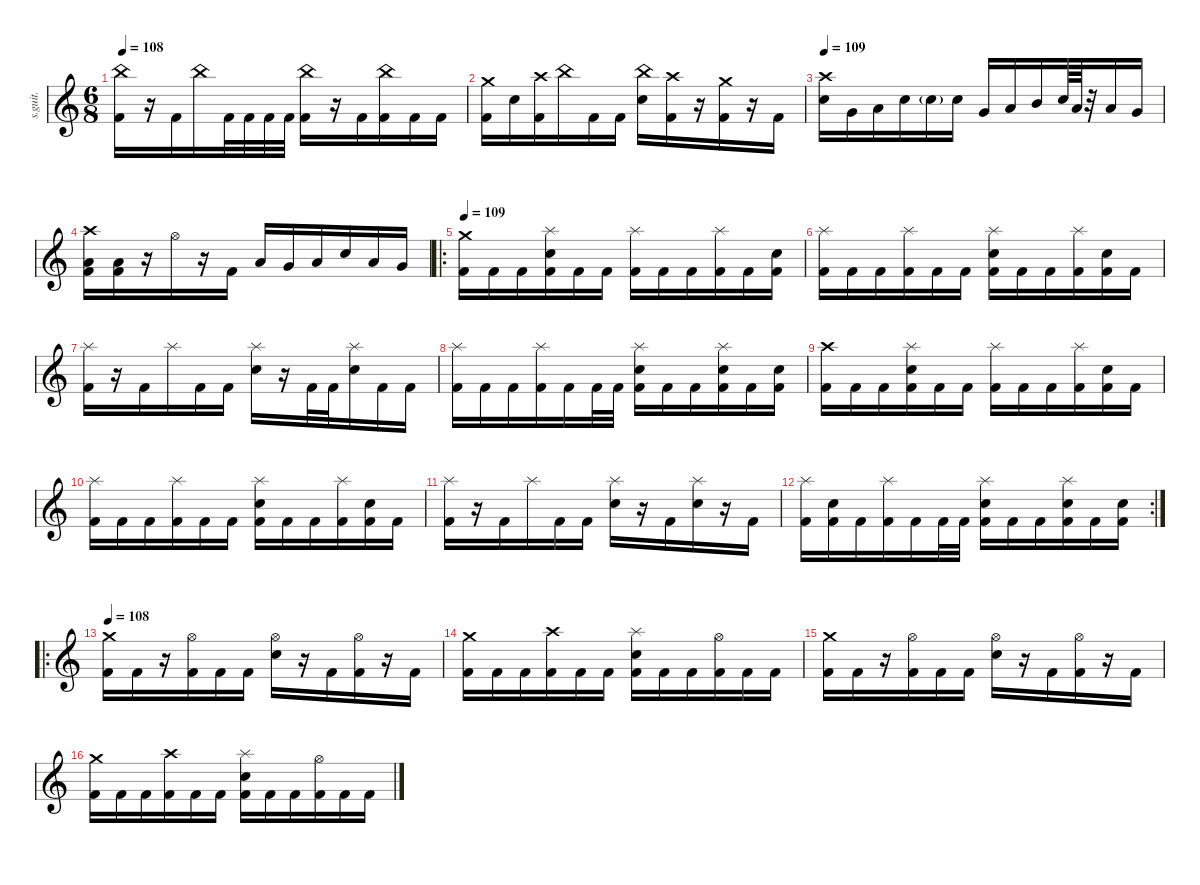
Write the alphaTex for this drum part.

\defaultSystemsLayout 4
\hideDynamics
\bracketExtendMode nobrackets
\track ("Drumkit" "s.guit.") {instrument percussion}
\staff {score}
\articulation defaults
\ts (6 8)
\tempo 108
\clef g2
\ks c
("China (hit)" "Kick (hit) 2").16{lyrics (0 "") lyrics (1 "") lyrics (2 "") lyrics (3 "") lyrics (4 "") dy f} r.16 "Kick (hit) 2".16{lyrics (0 "") lyrics (1 "") lyrics (2 "") lyrics (3 "") lyrics (4 "")} "China (hit)".16{lyrics (0 "") lyrics (1 "") lyrics (2 "") lyrics (3 "") lyrics (4 "")} "Kick (hit) 2".32{lyrics (0 "") lyrics (1 "") lyrics (2 "") lyrics (3 "") lyrics (4 "")} "Kick (hit) 2".32{lyrics (0 "") lyrics (1 "") lyrics (2 "") lyrics (3 "") lyrics (4 "")} "Kick (hit) 2".32{lyrics (0 "") lyrics (1 "") lyrics (2 "") lyrics (3 "") lyrics (4 "")} "Kick (hit) 2".32{lyrics (0 "") lyrics (1 "") lyrics (2 "") lyrics (3 "") lyrics (4 "")} ("China (hit)" "Kick (hit) 2").16{lyrics (0 "") lyrics (1 "") lyrics (2 "") lyrics (3 "") lyrics (4 "")} r.16 "Kick (hit) 2".16{lyrics (0 "") lyrics (1 "") lyrics (2 "") lyrics (3 "") lyrics (4 "")} ("China (hit)" "Kick (hit) 2").16{lyrics (0 "") lyrics (1 "") lyrics (2 "") lyrics (3 "") lyrics (4 "")} "Kick (hit) 2".16{lyrics (0 "") lyrics (1 "") lyrics (2 "") lyrics (3 "") lyrics (4 "")} "Kick (hit) 2".16{lyrics (0 "") lyrics (1 "") lyrics (2 "") lyrics (3 "") lyrics (4 "")} |
("Crash medium (hit)" "Kick (hit) 2").16{lyrics (0 "") lyrics (1 "") lyrics (2 "") lyrics (3 "") lyrics (4 "")} "Electric Snare (hit)".16{lyrics (0 "") lyrics (1 "") lyrics (2 "") lyrics (3 "") lyrics (4 "")} ("Crash high (hit)" "Kick (hit) 2").16{lyrics (0 "") lyrics (1 "") lyrics (2 "") lyrics (3 "") lyrics (4 "")} "China (hit)".16{lyrics (0 "") lyrics (1 "") lyrics (2 "") lyrics (3 "") lyrics (4 "")} "Kick (hit) 2".16{lyrics (0 "") lyrics (1 "") lyrics (2 "") lyrics (3 "") lyrics (4 "")} "Kick (hit) 2".16{lyrics (0 "") lyrics (1 "") lyrics (2 "") lyrics (3 "") lyrics (4 "")} ("China (hit)" "Electric Snare (hit)").16{lyrics (0 "") lyrics (1 "") lyrics (2 "") lyrics (3 "") lyrics (4 "")} ("Crash high (hit)" "Kick (hit) 2").16{lyrics (0 "") lyrics (1 "") lyrics (2 "") lyrics (3 "") lyrics (4 "")} r.16 ("Crash medium (hit)" "Kick (hit) 2").16{lyrics (0 "") lyrics (1 "") lyrics (2 "") lyrics (3 "") lyrics (4 "")} r.16 "Kick (hit) 2".16{lyrics (0 "") lyrics (1 "") lyrics (2 "") lyrics (3 "") lyrics (4 "")} |
\tempo 109
("Crash high (hit)" "Electric Snare (hit)").16{lyrics (0 "") lyrics (1 "") lyrics (2 "") lyrics (3 "") lyrics (4 "")} "Very Low Tom (hit)".16{lyrics (0 "") lyrics (1 "") lyrics (2 "") lyrics (3 "") lyrics (4 "")} "Low Tom (hit)".16{lyrics (0 "") lyrics (1 "") lyrics (2 "") lyrics (3 "") lyrics (4 "")} "Electric Snare (hit)".16{lyrics (0 "") lyrics (1 "") lyrics (2 "") lyrics (3 "") lyrics (4 "")} "Electric Snare (hit)"{g}.16{lyrics (0 "") lyrics (1 "") lyrics (2 "") lyrics (3 "") lyrics (4 "") dy mp} "Electric Snare (hit)".16{lyrics (0 "") lyrics (1 "") lyrics (2 "") lyrics (3 "") lyrics (4 "") dy f} "Very Low Tom (hit)".16{lyrics (0 "") lyrics (1 "") lyrics (2 "") lyrics (3 "") lyrics (4 "")} "Low Tom (hit)".16{lyrics (0 "") lyrics (1 "") lyrics (2 "") lyrics (3 "") lyrics (4 "")} "Mid Tom (hit)".16{lyrics (0 "") lyrics (1 "") lyrics (2 "") lyrics (3 "") lyrics (4 "")} "Electric Snare (hit)".64{lyrics (0 "") lyrics (1 "") lyrics (2 "") lyrics (3 "") lyrics (4 "")} "Low Floor Tom (hit)".64{lyrics (0 "") lyrics (1 "") lyrics (2 "") lyrics (3 "") lyrics (4 "")} r.32 "Low Tom (hit)".16{lyrics (0 "") lyrics (1 "") lyrics (2 "") lyrics (3 "") lyrics (4 "")} "Very Low Tom (hit)".16{lyrics (0 "") lyrics (1 "") lyrics (2 "") lyrics (3 "") lyrics (4 "")} |
("Crash high (hit)" "Low Floor Tom (hit)" "Kick (hit) 2").16{lyrics (0 "") lyrics (1 "") lyrics (2 "") lyrics (3 "") lyrics (4 "")} ("Low Floor Tom (hit)" "Kick (hit) 2").16{lyrics (0 "") lyrics (1 "") lyrics (2 "") lyrics (3 "") lyrics (4 "")} r.16 "Hi-Hat (open)".16{lyrics (0 "") lyrics (1 "") lyrics (2 "") lyrics (3 "") lyrics (4 "")} r.16 "Kick (hit) 2".16{lyrics (0 "") lyrics (1 "") lyrics (2 "") lyrics (3 "") lyrics (4 "")} "Low Floor Tom (hit)".16{lyrics (0 "") lyrics (1 "") lyrics (2 "") lyrics (3 "") lyrics (4 "")} "Very Low Tom (hit)".16{lyrics (0 "") lyrics (1 "") lyrics (2 "") lyrics (3 "") lyrics (4 "")} "Low Tom (hit)".16{lyrics (0 "") lyrics (1 "") lyrics (2 "") lyrics (3 "") lyrics (4 "")} "Electric Snare (hit)".16{lyrics (0 "") lyrics (1 "") lyrics (2 "") lyrics (3 "") lyrics (4 "")} "Low Floor Tom (hit)".16{lyrics (0 "") lyrics (1 "") lyrics (2 "") lyrics (3 "") lyrics (4 "")} "Very Low Tom (hit)".16{lyrics (0 "") lyrics (1 "") lyrics (2 "") lyrics (3 "") lyrics (4 "")} |
\ro
\tempo 109
("Crash medium (hit)" "Kick (hit) 2").16{lyrics (0 "") lyrics (1 "") lyrics (2 "") lyrics (3 "") lyrics (4 "")} "Kick (hit) 2".16{lyrics (0 "") lyrics (1 "") lyrics (2 "") lyrics (3 "") lyrics (4 "")} "Kick (hit) 2".16{lyrics (0 "") lyrics (1 "") lyrics (2 "") lyrics (3 "") lyrics (4 "")} ("Splash (hit)" "Electric Snare (hit)" "Kick (hit) 2").16{lyrics (0 "") lyrics (1 "") lyrics (2 "") lyrics (3 "") lyrics (4 "")} "Kick (hit) 2".16{lyrics (0 "") lyrics (1 "") lyrics (2 "") lyrics (3 "") lyrics (4 "")} "Kick (hit) 2".16{lyrics (0 "") lyrics (1 "") lyrics (2 "") lyrics (3 "") lyrics (4 "")} ("Splash (hit)" "Kick (hit) 2").16{lyrics (0 "") lyrics (1 "") lyrics (2 "") lyrics (3 "") lyrics (4 "")} "Kick (hit) 2".16{lyrics (0 "") lyrics (1 "") lyrics (2 "") lyrics (3 "") lyrics (4 "")} "Kick (hit) 2".16{lyrics (0 "") lyrics (1 "") lyrics (2 "") lyrics (3 "") lyrics (4 "")} ("Splash (hit)" "Kick (hit) 2").16{lyrics (0 "") lyrics (1 "") lyrics (2 "") lyrics (3 "") lyrics (4 "")} "Kick (hit) 2".16{lyrics (0 "") lyrics (1 "") lyrics (2 "") lyrics (3 "") lyrics (4 "")} ("Electric Snare (hit)" "Kick (hit) 2").16{lyrics (0 "") lyrics (1 "") lyrics (2 "") lyrics (3 "") lyrics (4 "")} |
("Splash (hit)" "Kick (hit) 2").16{lyrics (0 "") lyrics (1 "") lyrics (2 "") lyrics (3 "") lyrics (4 "")} "Kick (hit) 2".16{lyrics (0 "") lyrics (1 "") lyrics (2 "") lyrics (3 "") lyrics (4 "")} "Kick (hit) 2".16{lyrics (0 "") lyrics (1 "") lyrics (2 "") lyrics (3 "") lyrics (4 "")} ("Splash (hit)" "Kick (hit) 2").16{lyrics (0 "") lyrics (1 "") lyrics (2 "") lyrics (3 "") lyrics (4 "")} "Kick (hit) 2".16{lyrics (0 "") lyrics (1 "") lyrics (2 "") lyrics (3 "") lyrics (4 "")} "Kick (hit) 2".16{lyrics (0 "") lyrics (1 "") lyrics (2 "") lyrics (3 "") lyrics (4 "")} ("Splash (hit)" "Electric Snare (hit)" "Kick (hit) 2").16{lyrics (0 "") lyrics (1 "") lyrics (2 "") lyrics (3 "") lyrics (4 "")} "Kick (hit) 2".16{lyrics (0 "") lyrics (1 "") lyrics (2 "") lyrics (3 "") lyrics (4 "")} "Kick (hit) 2".16{lyrics (0 "") lyrics (1 "") lyrics (2 "") lyrics (3 "") lyrics (4 "")} ("Splash (hit)" "Kick (hit) 2").16{lyrics (0 "") lyrics (1 "") lyrics (2 "") lyrics (3 "") lyrics (4 "")} ("Electric Snare (hit)" "Kick (hit) 2").16{lyrics (0 "") lyrics (1 "") lyrics (2 "") lyrics (3 "") lyrics (4 "")} "Kick (hit) 2".16{lyrics (0 "") lyrics (1 "") lyrics (2 "") lyrics (3 "") lyrics (4 "")} |
("Splash (hit)" "Kick (hit) 2").16{lyrics (0 "") lyrics (1 "") lyrics (2 "") lyrics (3 "") lyrics (4 "")} r.16 "Kick (hit) 2".16{lyrics (0 "") lyrics (1 "") lyrics (2 "") lyrics (3 "") lyrics (4 "")} "Splash (hit)".16{lyrics (0 "") lyrics (1 "") lyrics (2 "") lyrics (3 "") lyrics (4 "")} "Kick (hit) 2".16{lyrics (0 "") lyrics (1 "") lyrics (2 "") lyrics (3 "") lyrics (4 "")} "Kick (hit) 2".16{lyrics (0 "") lyrics (1 "") lyrics (2 "") lyrics (3 "") lyrics (4 "")} ("Splash (hit)" "Electric Snare (hit)").16{lyrics (0 "") lyrics (1 "") lyrics (2 "") lyrics (3 "") lyrics (4 "")} r.16 "Kick (hit) 2".32{lyrics (0 "") lyrics (1 "") lyrics (2 "") lyrics (3 "") lyrics (4 "")} "Kick (hit) 2".32{lyrics (0 "") lyrics (1 "") lyrics (2 "") lyrics (3 "") lyrics (4 "")} ("Splash (hit)" "Electric Snare (hit)").16{lyrics (0 "") lyrics (1 "") lyrics (2 "") lyrics (3 "") lyrics (4 "")} "Kick (hit) 2".16{lyrics (0 "") lyrics (1 "") lyrics (2 "") lyrics (3 "") lyrics (4 "")} "Kick (hit) 2".16{lyrics (0 "") lyrics (1 "") lyrics (2 "") lyrics (3 "") lyrics (4 "")} |
("Splash (hit)" "Kick (hit) 2").16{lyrics (0 "") lyrics (1 "") lyrics (2 "") lyrics (3 "") lyrics (4 "")} "Kick (hit) 2".16{lyrics (0 "") lyrics (1 "") lyrics (2 "") lyrics (3 "") lyrics (4 "")} "Kick (hit) 2".16{lyrics (0 "") lyrics (1 "") lyrics (2 "") lyrics (3 "") lyrics (4 "")} ("Splash (hit)" "Kick (hit) 2").16{lyrics (0 "") lyrics (1 "") lyrics (2 "") lyrics (3 "") lyrics (4 "")} "Kick (hit) 2".16{lyrics (0 "") lyrics (1 "") lyrics (2 "") lyrics (3 "") lyrics (4 "")} "Kick (hit) 2".32{lyrics (0 "") lyrics (1 "") lyrics (2 "") lyrics (3 "") lyrics (4 "")} "Kick (hit) 2".32{lyrics (0 "") lyrics (1 "") lyrics (2 "") lyrics (3 "") lyrics (4 "")} ("Splash (hit)" "Electric Snare (hit)" "Kick (hit) 2").16{lyrics (0 "") lyrics (1 "") lyrics (2 "") lyrics (3 "") lyrics (4 "")} "Kick (hit) 2".16{lyrics (0 "") lyrics (1 "") lyrics (2 "") lyrics (3 "") lyrics (4 "")} "Kick (hit) 2".16{lyrics (0 "") lyrics (1 "") lyrics (2 "") lyrics (3 "") lyrics (4 "")} ("Splash (hit)" "Electric Snare (hit)" "Kick (hit) 2").16{lyrics (0 "") lyrics (1 "") lyrics (2 "") lyrics (3 "") lyrics (4 "")} "Kick (hit) 2".16{lyrics (0 "") lyrics (1 "") lyrics (2 "") lyrics (3 "") lyrics (4 "")} ("Electric Snare (hit)" "Kick (hit) 2").16{lyrics (0 "") lyrics (1 "") lyrics (2 "") lyrics (3 "") lyrics (4 "")} |
("Crash high (hit)" "Kick (hit) 2").16{lyrics (0 "") lyrics (1 "") lyrics (2 "") lyrics (3 "") lyrics (4 "")} "Kick (hit) 2".16{lyrics (0 "") lyrics (1 "") lyrics (2 "") lyrics (3 "") lyrics (4 "")} "Kick (hit) 2".16{lyrics (0 "") lyrics (1 "") lyrics (2 "") lyrics (3 "") lyrics (4 "")} ("Splash (hit)" "Electric Snare (hit)" "Kick (hit) 2").16{lyrics (0 "") lyrics (1 "") lyrics (2 "") lyrics (3 "") lyrics (4 "")} "Kick (hit) 2".16{lyrics (0 "") lyrics (1 "") lyrics (2 "") lyrics (3 "") lyrics (4 "")} "Kick (hit) 2".16{lyrics (0 "") lyrics (1 "") lyrics (2 "") lyrics (3 "") lyrics (4 "")} ("Splash (hit)" "Kick (hit) 2").16{lyrics (0 "") lyrics (1 "") lyrics (2 "") lyrics (3 "") lyrics (4 "")} "Kick (hit) 2".16{lyrics (0 "") lyrics (1 "") lyrics (2 "") lyrics (3 "") lyrics (4 "")} "Kick (hit) 2".16{lyrics (0 "") lyrics (1 "") lyrics (2 "") lyrics (3 "") lyrics (4 "")} ("Splash (hit)" "Kick (hit) 2").16{lyrics (0 "") lyrics (1 "") lyrics (2 "") lyrics (3 "") lyrics (4 "")} ("Electric Snare (hit)" "Kick (hit) 2").16{lyrics (0 "") lyrics (1 "") lyrics (2 "") lyrics (3 "") lyrics (4 "")} "Kick (hit) 2".16{lyrics (0 "") lyrics (1 "") lyrics (2 "") lyrics (3 "") lyrics (4 "")} |
("Splash (hit)" "Kick (hit) 2").16{lyrics (0 "") lyrics (1 "") lyrics (2 "") lyrics (3 "") lyrics (4 "")} "Kick (hit) 2".16{lyrics (0 "") lyrics (1 "") lyrics (2 "") lyrics (3 "") lyrics (4 "")} "Kick (hit) 2".16{lyrics (0 "") lyrics (1 "") lyrics (2 "") lyrics (3 "") lyrics (4 "")} ("Splash (hit)" "Kick (hit) 2").16{lyrics (0 "") lyrics (1 "") lyrics (2 "") lyrics (3 "") lyrics (4 "")} "Kick (hit) 2".16{lyrics (0 "") lyrics (1 "") lyrics (2 "") lyrics (3 "") lyrics (4 "")} "Kick (hit) 2".16{lyrics (0 "") lyrics (1 "") lyrics (2 "") lyrics (3 "") lyrics (4 "")} ("Splash (hit)" "Electric Snare (hit)" "Kick (hit) 2").16{lyrics (0 "") lyrics (1 "") lyrics (2 "") lyrics (3 "") lyrics (4 "")} "Kick (hit) 2".16{lyrics (0 "") lyrics (1 "") lyrics (2 "") lyrics (3 "") lyrics (4 "")} "Kick (hit) 2".16{lyrics (0 "") lyrics (1 "") lyrics (2 "") lyrics (3 "") lyrics (4 "")} ("Splash (hit)" "Kick (hit) 2").16{lyrics (0 "") lyrics (1 "") lyrics (2 "") lyrics (3 "") lyrics (4 "")} ("Electric Snare (hit)" "Kick (hit) 2").16{lyrics (0 "") lyrics (1 "") lyrics (2 "") lyrics (3 "") lyrics (4 "")} "Kick (hit) 2".16{lyrics (0 "") lyrics (1 "") lyrics (2 "") lyrics (3 "") lyrics (4 "")} |
("Splash (hit)" "Kick (hit) 2").16{lyrics (0 "") lyrics (1 "") lyrics (2 "") lyrics (3 "") lyrics (4 "")} r.16 "Kick (hit) 2".16{lyrics (0 "") lyrics (1 "") lyrics (2 "") lyrics (3 "") lyrics (4 "")} "Splash (hit)".16{lyrics (0 "") lyrics (1 "") lyrics (2 "") lyrics (3 "") lyrics (4 "")} "Kick (hit) 2".16{lyrics (0 "") lyrics (1 "") lyrics (2 "") lyrics (3 "") lyrics (4 "")} "Kick (hit) 2".16{lyrics (0 "") lyrics (1 "") lyrics (2 "") lyrics (3 "") lyrics (4 "")} ("Splash (hit)" "Electric Snare (hit)").16{lyrics (0 "") lyrics (1 "") lyrics (2 "") lyrics (3 "") lyrics (4 "")} r.16 "Kick (hit) 2".16{lyrics (0 "") lyrics (1 "") lyrics (2 "") lyrics (3 "") lyrics (4 "")} ("Splash (hit)" "Electric Snare (hit)").16{lyrics (0 "") lyrics (1 "") lyrics (2 "") lyrics (3 "") lyrics (4 "")} r.16 "Kick (hit) 2".16{lyrics (0 "") lyrics (1 "") lyrics (2 "") lyrics (3 "") lyrics (4 "")} |
\rc 2
("Splash (hit)" "Kick (hit) 2").16{lyrics (0 "") lyrics (1 "") lyrics (2 "") lyrics (3 "") lyrics (4 "")} ("Electric Snare (hit)" "Kick (hit) 2").16{lyrics (0 "") lyrics (1 "") lyrics (2 "") lyrics (3 "") lyrics (4 "")} "Kick (hit) 2".16{lyrics (0 "") lyrics (1 "") lyrics (2 "") lyrics (3 "") lyrics (4 "")} ("Splash (hit)" "Kick (hit) 2").16{lyrics (0 "") lyrics (1 "") lyrics (2 "") lyrics (3 "") lyrics (4 "")} "Kick (hit) 2".16{lyrics (0 "") lyrics (1 "") lyrics (2 "") lyrics (3 "") lyrics (4 "")} "Kick (hit) 2".32{lyrics (0 "") lyrics (1 "") lyrics (2 "") lyrics (3 "") lyrics (4 "")} "Kick (hit) 2".32{lyrics (0 "") lyrics (1 "") lyrics (2 "") lyrics (3 "") lyrics (4 "")} ("Splash (hit)" "Electric Snare (hit)" "Kick (hit) 2").16{lyrics (0 "") lyrics (1 "") lyrics (2 "") lyrics (3 "") lyrics (4 "")} "Kick (hit) 2".16{lyrics (0 "") lyrics (1 "") lyrics (2 "") lyrics (3 "") lyrics (4 "")} "Kick (hit) 2".16{lyrics (0 "") lyrics (1 "") lyrics (2 "") lyrics (3 "") lyrics (4 "")} ("Splash (hit)" "Electric Snare (hit)" "Kick (hit) 2").16{lyrics (0 "") lyrics (1 "") lyrics (2 "") lyrics (3 "") lyrics (4 "")} "Kick (hit) 2".16{lyrics (0 "") lyrics (1 "") lyrics (2 "") lyrics (3 "") lyrics (4 "")} ("Electric Snare (hit)" "Kick (hit) 2").16{lyrics (0 "") lyrics (1 "") lyrics (2 "") lyrics (3 "") lyrics (4 "")} |
\ro
\tempo 108
("Crash medium (hit)" "Kick (hit) 2").16{lyrics (0 "") lyrics (1 "") lyrics (2 "") lyrics (3 "") lyrics (4 "")} "Kick (hit) 2".16{lyrics (0 "") lyrics (1 "") lyrics (2 "") lyrics (3 "") lyrics (4 "")} r.16 ("Hi-Hat (open)" "Kick (hit) 2").16{lyrics (0 "") lyrics (1 "") lyrics (2 "") lyrics (3 "") lyrics (4 "")} "Kick (hit) 2".16{lyrics (0 "") lyrics (1 "") lyrics (2 "") lyrics (3 "") lyrics (4 "")} "Kick (hit) 2".16{lyrics (0 "") lyrics (1 "") lyrics (2 "") lyrics (3 "") lyrics (4 "")} ("Hi-Hat (open)" "Electric Snare (hit)").16{lyrics (0 "") lyrics (1 "") lyrics (2 "") lyrics (3 "") lyrics (4 "")} r.16 "Kick (hit) 2".16{lyrics (0 "") lyrics (1 "") lyrics (2 "") lyrics (3 "") lyrics (4 "")} ("Hi-Hat (open)" "Kick (hit) 2").16{lyrics (0 "") lyrics (1 "") lyrics (2 "") lyrics (3 "") lyrics (4 "")} r.16 "Kick (hit) 2".16{lyrics (0 "") lyrics (1 "") lyrics (2 "") lyrics (3 "") lyrics (4 "")} |
("Crash medium (hit)" "Kick (hit) 2").16{lyrics (0 "") lyrics (1 "") lyrics (2 "") lyrics (3 "") lyrics (4 "")} "Kick (hit) 2".16{lyrics (0 "") lyrics (1 "") lyrics (2 "") lyrics (3 "") lyrics (4 "")} "Kick (hit) 2".16{lyrics (0 "") lyrics (1 "") lyrics (2 "") lyrics (3 "") lyrics (4 "")} ("Crash high (hit)" "Kick (hit) 2").16{lyrics (0 "") lyrics (1 "") lyrics (2 "") lyrics (3 "") lyrics (4 "")} "Kick (hit) 2".16{lyrics (0 "") lyrics (1 "") lyrics (2 "") lyrics (3 "") lyrics (4 "")} "Kick (hit) 2".16{lyrics (0 "") lyrics (1 "") lyrics (2 "") lyrics (3 "") lyrics (4 "")} ("Splash (hit)" "Electric Snare (hit)" "Kick (hit) 2").16{lyrics (0 "") lyrics (1 "") lyrics (2 "") lyrics (3 "") lyrics (4 "")} "Kick (hit) 2".16{lyrics (0 "") lyrics (1 "") lyrics (2 "") lyrics (3 "") lyrics (4 "")} "Kick (hit) 2".16{lyrics (0 "") lyrics (1 "") lyrics (2 "") lyrics (3 "") lyrics (4 "")} ("Hi-Hat (open)" "Kick (hit) 2").16{lyrics (0 "") lyrics (1 "") lyrics (2 "") lyrics (3 "") lyrics (4 "")} "Kick (hit) 2".16{lyrics (0 "") lyrics (1 "") lyrics (2 "") lyrics (3 "") lyrics (4 "")} "Kick (hit) 2".16{lyrics (0 "") lyrics (1 "") lyrics (2 "") lyrics (3 "") lyrics (4 "")} |
("Crash medium (hit)" "Kick (hit) 2").16{lyrics (0 "") lyrics (1 "") lyrics (2 "") lyrics (3 "") lyrics (4 "")} "Kick (hit) 2".16{lyrics (0 "") lyrics (1 "") lyrics (2 "") lyrics (3 "") lyrics (4 "")} r.16 ("Hi-Hat (open)" "Kick (hit) 2").16{lyrics (0 "") lyrics (1 "") lyrics (2 "") lyrics (3 "") lyrics (4 "")} "Kick (hit) 2".16{lyrics (0 "") lyrics (1 "") lyrics (2 "") lyrics (3 "") lyrics (4 "")} "Kick (hit) 2".16{lyrics (0 "") lyrics (1 "") lyrics (2 "") lyrics (3 "") lyrics (4 "")} ("Hi-Hat (open)" "Electric Snare (hit)").16{lyrics (0 "") lyrics (1 "") lyrics (2 "") lyrics (3 "") lyrics (4 "")} r.16 "Kick (hit) 2".16{lyrics (0 "") lyrics (1 "") lyrics (2 "") lyrics (3 "") lyrics (4 "")} ("Hi-Hat (open)" "Kick (hit) 2").16{lyrics (0 "") lyrics (1 "") lyrics (2 "") lyrics (3 "") lyrics (4 "")} r.16 "Kick (hit) 2".16{lyrics (0 "") lyrics (1 "") lyrics (2 "") lyrics (3 "") lyrics (4 "")} |
("Crash medium (hit)" "Kick (hit) 2").16{lyrics (0 "") lyrics (1 "") lyrics (2 "") lyrics (3 "") lyrics (4 "")} "Kick (hit) 2".16{lyrics (0 "") lyrics (1 "") lyrics (2 "") lyrics (3 "") lyrics (4 "")} "Kick (hit) 2".16{lyrics (0 "") lyrics (1 "") lyrics (2 "") lyrics (3 "") lyrics (4 "")} ("Crash high (hit)" "Kick (hit) 2").16{lyrics (0 "") lyrics (1 "") lyrics (2 "") lyrics (3 "") lyrics (4 "")} "Kick (hit) 2".16{lyrics (0 "") lyrics (1 "") lyrics (2 "") lyrics (3 "") lyrics (4 "")} "Kick (hit) 2".16{lyrics (0 "") lyrics (1 "") lyrics (2 "") lyrics (3 "") lyrics (4 "")} ("Splash (hit)" "Electric Snare (hit)" "Kick (hit) 2").16{lyrics (0 "") lyrics (1 "") lyrics (2 "") lyrics (3 "") lyrics (4 "")} "Kick (hit) 2".16{lyrics (0 "") lyrics (1 "") lyrics (2 "") lyrics (3 "") lyrics (4 "")} "Kick (hit) 2".16{lyrics (0 "") lyrics (1 "") lyrics (2 "") lyrics (3 "") lyrics (4 "")} ("Hi-Hat (open)" "Kick (hit) 2").16{lyrics (0 "") lyrics (1 "") lyrics (2 "") lyrics (3 "") lyrics (4 "")} "Kick (hit) 2".16{lyrics (0 "") lyrics (1 "") lyrics (2 "") lyrics (3 "") lyrics (4 "")} "Kick (hit) 2".16{lyrics (0 "") lyrics (1 "") lyrics (2 "") lyrics (3 "") lyrics (4 "")}
